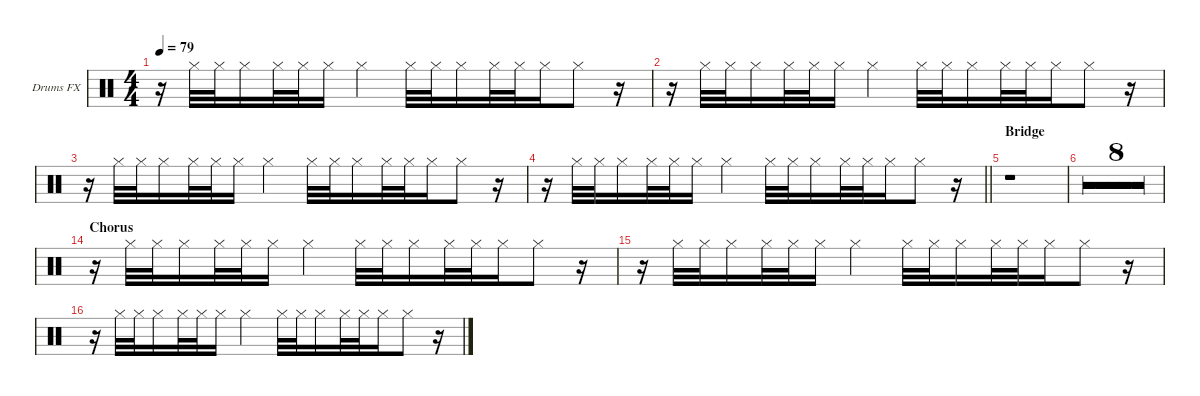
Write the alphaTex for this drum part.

\defaultSystemsLayout 4
\hideDynamics
\bracketExtendMode groupsimilarinstruments
\firstSystemTrackNameOrientation horizontal
\otherSystemsTrackNameOrientation horizontal
\track ("Drumkit FX" "Drums FX") {multiBarRest instrument percussion}
\staff {score}
\articulation defaults
\ts (4 4)
\tempo 79
\clef neutral
\ks c
r.16{dy mp} "Hi-Hat (closed)".32 "Hi-Hat (closed)".32 "Hi-Hat (closed)".16 "Hi-Hat (closed)".32 "Hi-Hat (closed)".32{beam merge} "Hi-Hat (closed)".16 "Hi-Hat (closed)".4 "Hi-Hat (closed)".32 "Hi-Hat (closed)".32 "Hi-Hat (closed)".16 "Hi-Hat (closed)".32 "Hi-Hat (closed)".32{beam merge} "Hi-Hat (closed)".16 "Hi-Hat (closed)".8 r.16 |
r.16 "Hi-Hat (closed)".32 "Hi-Hat (closed)".32 "Hi-Hat (closed)".16 "Hi-Hat (closed)".32 "Hi-Hat (closed)".32{beam merge} "Hi-Hat (closed)".16 "Hi-Hat (closed)".4 "Hi-Hat (closed)".32 "Hi-Hat (closed)".32 "Hi-Hat (closed)".16 "Hi-Hat (closed)".32 "Hi-Hat (closed)".32{beam merge} "Hi-Hat (closed)".16 "Hi-Hat (closed)".8 r.16 |
r.16 "Hi-Hat (closed)".32 "Hi-Hat (closed)".32 "Hi-Hat (closed)".16 "Hi-Hat (closed)".32 "Hi-Hat (closed)".32{beam merge} "Hi-Hat (closed)".16 "Hi-Hat (closed)".4 "Hi-Hat (closed)".32 "Hi-Hat (closed)".32 "Hi-Hat (closed)".16 "Hi-Hat (closed)".32 "Hi-Hat (closed)".32{beam merge} "Hi-Hat (closed)".16 "Hi-Hat (closed)".8 r.16 |
\barLineRight lightlight
r.16 "Hi-Hat (closed)".32 "Hi-Hat (closed)".32 "Hi-Hat (closed)".16 "Hi-Hat (closed)".32 "Hi-Hat (closed)".32{beam merge} "Hi-Hat (closed)".16 "Hi-Hat (closed)".4 "Hi-Hat (closed)".32 "Hi-Hat (closed)".32 "Hi-Hat (closed)".16 "Hi-Hat (closed)".32 "Hi-Hat (closed)".32{beam merge} "Hi-Hat (closed)".16 "Hi-Hat (closed)".8 r.16 |
\section ("" "Bridge")
r.1 |
r.1 |
r.1 |
r.1 |
r.1 |
r.1 |
r.1 |
\barLineRight lightlight
r.1 |
r.1 |
\section ("" "Chorus")
r.16 "Hi-Hat (closed)".32 "Hi-Hat (closed)".32 "Hi-Hat (closed)".16 "Hi-Hat (closed)".32 "Hi-Hat (closed)".32{beam merge} "Hi-Hat (closed)".16 "Hi-Hat (closed)".4 "Hi-Hat (closed)".32 "Hi-Hat (closed)".32 "Hi-Hat (closed)".16 "Hi-Hat (closed)".32 "Hi-Hat (closed)".32{beam merge} "Hi-Hat (closed)".16 "Hi-Hat (closed)".8 r.16 |
r.16 "Hi-Hat (closed)".32 "Hi-Hat (closed)".32 "Hi-Hat (closed)".16 "Hi-Hat (closed)".32 "Hi-Hat (closed)".32{beam merge} "Hi-Hat (closed)".16 "Hi-Hat (closed)".4 "Hi-Hat (closed)".32 "Hi-Hat (closed)".32 "Hi-Hat (closed)".16 "Hi-Hat (closed)".32 "Hi-Hat (closed)".32{beam merge} "Hi-Hat (closed)".16 "Hi-Hat (closed)".8 r.16 |
r.16 "Hi-Hat (closed)".32 "Hi-Hat (closed)".32 "Hi-Hat (closed)".16 "Hi-Hat (closed)".32 "Hi-Hat (closed)".32{beam merge} "Hi-Hat (closed)".16 "Hi-Hat (closed)".4 "Hi-Hat (closed)".32 "Hi-Hat (closed)".32 "Hi-Hat (closed)".16 "Hi-Hat (closed)".32 "Hi-Hat (closed)".32{beam merge} "Hi-Hat (closed)".16 "Hi-Hat (closed)".8 r.16
